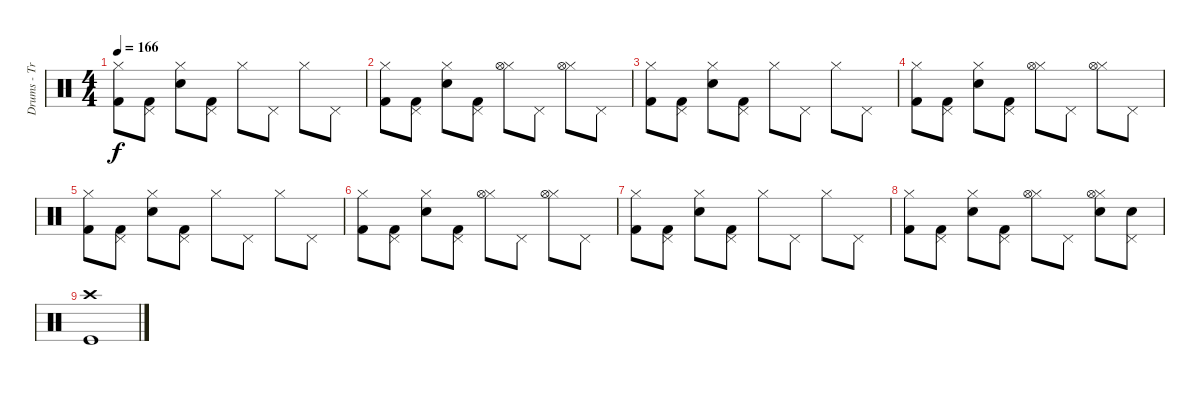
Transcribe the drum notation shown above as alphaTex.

\track ("Drums - Travis Barker" "Drums - Tr") {instrument percussion}
\staff {score}
\articulation defaults
\ts (4 4)
\tempo 166
\clef neutral
\ks c
("Hi-Hat (closed)" "Kick (hit) 2").8{dy f} ("Pedal Hi-Hat (hit)" "Kick (hit) 2").8 ("Hi-Hat (closed)" "Electric Snare (hit)").8 ("Pedal Hi-Hat (hit)" "Kick (hit) 2").8 "Hi-Hat (closed)".8 "Pedal Hi-Hat (hit)".8 "Hi-Hat (closed)".8 "Pedal Hi-Hat (hit)".8 |
("Hi-Hat (closed)" "Kick (hit) 2").8 ("Pedal Hi-Hat (hit)" "Kick (hit) 2").8 ("Hi-Hat (closed)" "Electric Snare (hit)").8 ("Pedal Hi-Hat (hit)" "Kick (hit) 2").8 ("Hi-Hat (closed)" "Hi-Hat (open)").8 "Pedal Hi-Hat (hit)".8 ("Hi-Hat (closed)" "Hi-Hat (open)").8 "Pedal Hi-Hat (hit)".8 |
("Hi-Hat (closed)" "Kick (hit) 2").8 ("Pedal Hi-Hat (hit)" "Kick (hit) 2").8 ("Hi-Hat (closed)" "Electric Snare (hit)").8 ("Pedal Hi-Hat (hit)" "Kick (hit) 2").8 "Hi-Hat (closed)".8 "Pedal Hi-Hat (hit)".8 "Hi-Hat (closed)".8 "Pedal Hi-Hat (hit)".8 |
("Hi-Hat (closed)" "Kick (hit) 2").8 ("Pedal Hi-Hat (hit)" "Kick (hit) 2").8 ("Hi-Hat (closed)" "Electric Snare (hit)").8 ("Pedal Hi-Hat (hit)" "Kick (hit) 2").8 ("Hi-Hat (closed)" "Hi-Hat (open)").8 "Pedal Hi-Hat (hit)".8 ("Hi-Hat (closed)" "Hi-Hat (open)").8 "Pedal Hi-Hat (hit)".8 |
("Hi-Hat (closed)" "Kick (hit) 2").8 ("Pedal Hi-Hat (hit)" "Kick (hit) 2").8 ("Hi-Hat (closed)" "Electric Snare (hit)").8 ("Pedal Hi-Hat (hit)" "Kick (hit) 2").8 "Hi-Hat (closed)".8 "Pedal Hi-Hat (hit)".8 "Hi-Hat (closed)".8 "Pedal Hi-Hat (hit)".8 |
("Hi-Hat (closed)" "Kick (hit) 2").8 ("Pedal Hi-Hat (hit)" "Kick (hit) 2").8 ("Hi-Hat (closed)" "Electric Snare (hit)").8 ("Pedal Hi-Hat (hit)" "Kick (hit) 2").8 ("Hi-Hat (closed)" "Hi-Hat (open)").8 "Pedal Hi-Hat (hit)".8 ("Hi-Hat (closed)" "Hi-Hat (open)").8 "Pedal Hi-Hat (hit)".8 |
("Hi-Hat (closed)" "Kick (hit) 2").8 ("Pedal Hi-Hat (hit)" "Kick (hit) 2").8 ("Hi-Hat (closed)" "Electric Snare (hit)").8 ("Pedal Hi-Hat (hit)" "Kick (hit) 2").8 "Hi-Hat (closed)".8 "Pedal Hi-Hat (hit)".8 "Hi-Hat (closed)".8 "Pedal Hi-Hat (hit)".8 |
("Hi-Hat (closed)" "Kick (hit) 2").8 ("Pedal Hi-Hat (hit)" "Kick (hit) 2").8 ("Hi-Hat (closed)" "Electric Snare (hit)").8 ("Pedal Hi-Hat (hit)" "Kick (hit) 2").8 ("Hi-Hat (closed)" "Hi-Hat (open)").8 "Pedal Hi-Hat (hit)".8 ("Hi-Hat (closed)" "Electric Snare (hit)" "Hi-Hat (open)").8 ("Pedal Hi-Hat (hit)" "Electric Snare (hit)").8 |
("Kick (hit)" "Crash high (hit)").1
